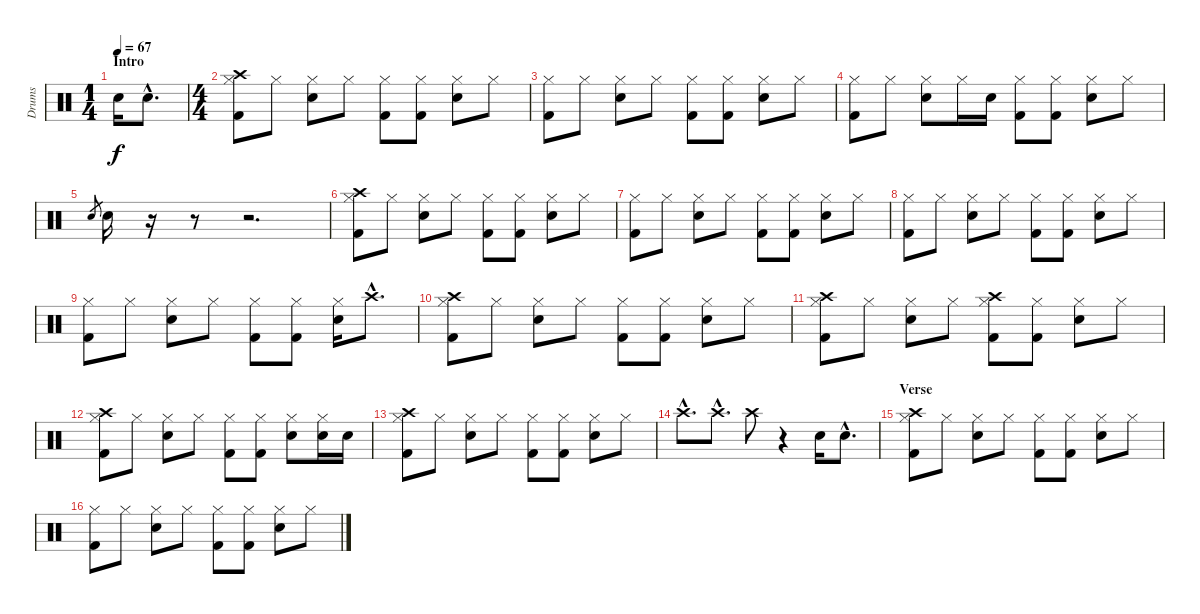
\track ("Drums" "Drums") {instrument percussion}
\staff {score}
\articulation defaults
\ts (1 4)
\section ("" "Intro")
\tempo 67
\clef neutral
\ks c "Snare (hit) 2".16{dy f} "Snare (hit) 2"{hac}.8{d}
|
\ts (4 4)
("Hi-Hat (closed)" "Kick (hit) 2" "Crash high (hit)").8 "Hi-Hat (closed)".8 ("Hi-Hat (closed)" "Snare (hit) 2").8 "Hi-Hat (closed)".8 ("Hi-Hat (closed)" "Kick (hit) 2").8 ("Hi-Hat (closed)" "Kick (hit) 2").8 ("Hi-Hat (closed)" "Snare (hit) 2").8 "Hi-Hat (closed)".8 |
("Hi-Hat (closed)" "Kick (hit) 2").8 "Hi-Hat (closed)".8 ("Hi-Hat (closed)" "Snare (hit) 2").8 "Hi-Hat (closed)".8 ("Hi-Hat (closed)" "Kick (hit) 2").8 ("Hi-Hat (closed)" "Kick (hit) 2").8 ("Hi-Hat (closed)" "Snare (hit) 2").8 "Hi-Hat (closed)".8 |
("Hi-Hat (closed)" "Kick (hit) 2").8 "Hi-Hat (closed)".8 ("Hi-Hat (closed)" "Snare (hit) 2").8 "Hi-Hat (closed)".16 "Snare (hit) 2".16 ("Hi-Hat (closed)" "Kick (hit) 2").8 ("Hi-Hat (closed)" "Kick (hit) 2").8 ("Hi-Hat (closed)" "Snare (hit) 2").8 "Hi-Hat (closed)".8 |
"Snare (hit) 2".8{gr} "Snare (hit) 2".16 r.16 r.8 r.2{d} |
("Hi-Hat (closed)" "Kick (hit) 2" "Crash high (hit)").8 "Hi-Hat (closed)".8 ("Hi-Hat (closed)" "Snare (hit) 2").8 "Hi-Hat (closed)".8 ("Hi-Hat (closed)" "Kick (hit) 2").8 ("Hi-Hat (closed)" "Kick (hit) 2").8 ("Hi-Hat (closed)" "Snare (hit) 2").8 "Hi-Hat (closed)".8 |
("Hi-Hat (closed)" "Kick (hit) 2").8 "Hi-Hat (closed)".8 ("Hi-Hat (closed)" "Snare (hit) 2").8 "Hi-Hat (closed)".8 ("Hi-Hat (closed)" "Kick (hit) 2").8 ("Hi-Hat (closed)" "Kick (hit) 2").8 ("Hi-Hat (closed)" "Snare (hit) 2").8 "Hi-Hat (closed)".8 |
("Hi-Hat (closed)" "Kick (hit) 2").8 "Hi-Hat (closed)".8 ("Hi-Hat (closed)" "Snare (hit) 2").8 "Hi-Hat (closed)".8 ("Hi-Hat (closed)" "Kick (hit) 2").8 ("Hi-Hat (closed)" "Kick (hit) 2").8 ("Hi-Hat (closed)" "Snare (hit) 2").8 "Hi-Hat (closed)".8 |
("Hi-Hat (closed)" "Kick (hit) 2").8 "Hi-Hat (closed)".8 ("Hi-Hat (closed)" "Snare (hit) 2").8 "Hi-Hat (closed)".8 ("Hi-Hat (closed)" "Kick (hit) 2").8 ("Hi-Hat (closed)" "Kick (hit) 2").8 ("Hi-Hat (closed)" "Snare (hit) 2").16 "Crash high (hit)"{hac}.8{d} |
("Crash high (hit)" "Hi-Hat (closed)" "Kick (hit) 2").8 "Hi-Hat (closed)".8 ("Hi-Hat (closed)" "Snare (hit) 2").8 "Hi-Hat (closed)".8 ("Hi-Hat (closed)" "Kick (hit) 2").8 ("Hi-Hat (closed)" "Kick (hit) 2").8 ("Hi-Hat (closed)" "Snare (hit) 2").8 "Hi-Hat (closed)".8 |
("Hi-Hat (closed)" "Kick (hit) 2" "Crash high (hit)").8 "Hi-Hat (closed)".8 ("Hi-Hat (closed)" "Snare (hit) 2").8 "Hi-Hat (closed)".8 ("Hi-Hat (closed)" "Kick (hit) 2" "Crash high (hit)").8 ("Hi-Hat (closed)" "Kick (hit) 2").8 ("Hi-Hat (closed)" "Snare (hit) 2").8 "Hi-Hat (closed)".8 |
("Hi-Hat (closed)" "Kick (hit) 2" "Crash high (hit)").8 "Hi-Hat (closed)".8 ("Hi-Hat (closed)" "Snare (hit) 2").8 "Hi-Hat (closed)".8 ("Hi-Hat (closed)" "Kick (hit) 2").8 ("Hi-Hat (closed)" "Kick (hit) 2").8 ("Hi-Hat (closed)" "Snare (hit) 2").8 ("Hi-Hat (closed)" "Snare (hit) 2").16 "Snare (hit) 2".16 |
("Hi-Hat (closed)" "Kick (hit) 2" "Crash high (hit)").8 "Hi-Hat (closed)".8 ("Hi-Hat (closed)" "Snare (hit) 2").8 "Hi-Hat (closed)".8 ("Hi-Hat (closed)" "Kick (hit) 2").8 ("Hi-Hat (closed)" "Kick (hit) 2").8 ("Hi-Hat (closed)" "Snare (hit) 2").8 "Hi-Hat (closed)".8 |
"Crash high (hit)"{hac}.8{d} "Crash high (hit)"{hac}.8{d} "Crash high (hit)".8 r.4 "Snare (hit) 2".16 "Snare (hit) 2"{hac}.8{d} |
\section ("" "Verse")
("Hi-Hat (closed)" "Kick (hit) 2" "Crash high (hit)").8 "Hi-Hat (closed)".8 ("Hi-Hat (closed)" "Snare (hit) 2").8 "Hi-Hat (closed)".8 ("Hi-Hat (closed)" "Kick (hit) 2").8 ("Hi-Hat (closed)" "Kick (hit) 2").8 ("Hi-Hat (closed)" "Snare (hit) 2").8 "Hi-Hat (closed)".8 |
("Hi-Hat (closed)" "Kick (hit) 2").8 "Hi-Hat (closed)".8 ("Hi-Hat (closed)" "Snare (hit) 2").8 "Hi-Hat (closed)".8 ("Hi-Hat (closed)" "Kick (hit) 2").8 ("Hi-Hat (closed)" "Kick (hit) 2").8 ("Hi-Hat (closed)" "Snare (hit) 2").8 "Hi-Hat (closed)".8
